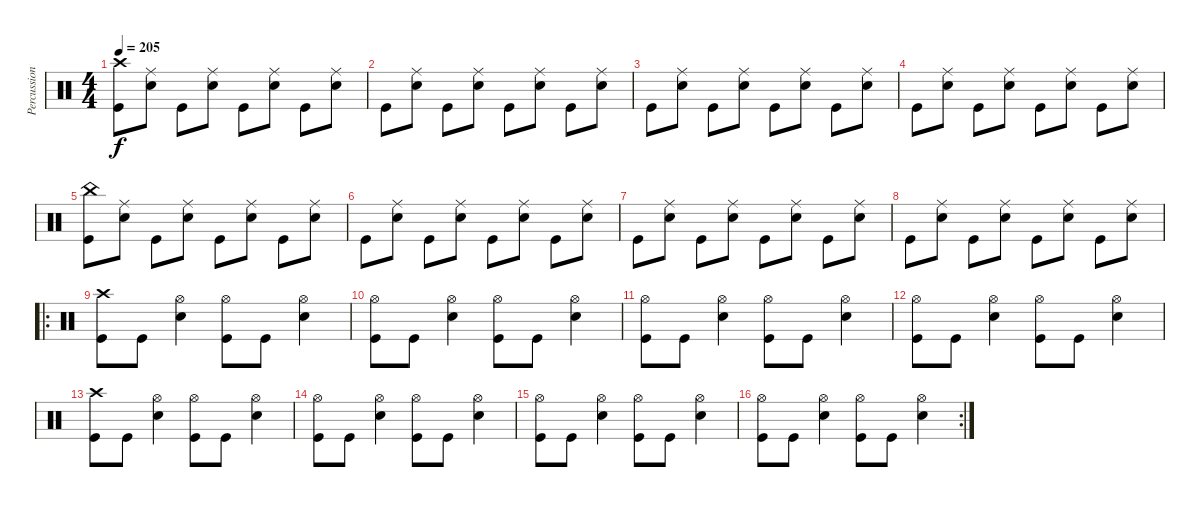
\track ("Percussion" "Percussion") {instrument percussion}
\staff {score}
\articulation defaults
\ts (4 4)
\tempo 205
\clef neutral
\ks c
("Kick (hit)" "Crash high (hit)").8{dy f} ("Snare (hit) 2" "Ride (middle)").8 "Kick (hit)".8 ("Snare (hit) 2" "Ride (middle)").8 "Kick (hit)".8 ("Snare (hit) 2" "Ride (middle)").8 "Kick (hit)".8 ("Snare (hit) 2" "Ride (middle)").8 |
"Kick (hit)".8 ("Snare (hit) 2" "Ride (middle)").8 "Kick (hit)".8 ("Snare (hit) 2" "Ride (middle)").8 "Kick (hit)".8 ("Snare (hit) 2" "Ride (middle)").8 "Kick (hit)".8 ("Snare (hit) 2" "Ride (middle)").8 |
"Kick (hit)".8 ("Snare (hit) 2" "Ride (middle)").8 "Kick (hit)".8 ("Snare (hit) 2" "Ride (middle)").8 "Kick (hit)".8 ("Snare (hit) 2" "Ride (middle)").8 "Kick (hit)".8 ("Snare (hit) 2" "Ride (middle)").8 |
"Kick (hit)".8 ("Snare (hit) 2" "Ride (middle)").8 "Kick (hit)".8 ("Snare (hit) 2" "Ride (middle)").8 "Kick (hit)".8 ("Snare (hit) 2" "Ride (middle)").8 "Kick (hit)".8 ("Snare (hit) 2" "Ride (middle)").8 |
("Kick (hit)" "China (hit)").8 ("Snare (hit) 2" "Ride (middle)").8 "Kick (hit)".8 ("Snare (hit) 2" "Ride (middle)").8 "Kick (hit)".8 ("Snare (hit) 2" "Ride (middle)").8 "Kick (hit)".8 ("Snare (hit) 2" "Ride (middle)").8 |
"Kick (hit)".8 ("Snare (hit) 2" "Ride (middle)").8 "Kick (hit)".8 ("Snare (hit) 2" "Ride (middle)").8 "Kick (hit)".8 ("Snare (hit) 2" "Ride (middle)").8 "Kick (hit)".8 ("Snare (hit) 2" "Ride (middle)").8 |
"Kick (hit)".8 ("Snare (hit) 2" "Ride (middle)").8 "Kick (hit)".8 ("Snare (hit) 2" "Ride (middle)").8 "Kick (hit)".8 ("Snare (hit) 2" "Ride (middle)").8 "Kick (hit)".8 ("Snare (hit) 2" "Ride (middle)").8 |
"Kick (hit)".8 ("Snare (hit) 2" "Ride (middle)").8 "Kick (hit)".8 ("Snare (hit) 2" "Ride (middle)").8 "Kick (hit)".8 ("Snare (hit) 2" "Ride (middle)").8 "Kick (hit)".8 ("Snare (hit) 2" "Ride (middle)").8 |
\ro
("Kick (hit)" "Crash high (hit)").8 "Kick (hit)".8 ("Snare (hit) 2" "Hi-Hat (open)").4 ("Kick (hit)" "Hi-Hat (open)").8 "Kick (hit)".8 ("Snare (hit) 2" "Hi-Hat (open)").4 |
("Kick (hit)" "Hi-Hat (open)").8 "Kick (hit)".8 ("Snare (hit) 2" "Hi-Hat (open)").4 ("Kick (hit)" "Hi-Hat (open)").8 "Kick (hit)".8 ("Snare (hit) 2" "Hi-Hat (open)").4 |
("Kick (hit)" "Hi-Hat (open)").8 "Kick (hit)".8 ("Snare (hit) 2" "Hi-Hat (open)").4 ("Kick (hit)" "Hi-Hat (open)").8 "Kick (hit)".8 ("Snare (hit) 2" "Hi-Hat (open)").4 |
("Kick (hit)" "Hi-Hat (open)").8 "Kick (hit)".8 ("Snare (hit) 2" "Hi-Hat (open)").4 ("Kick (hit)" "Hi-Hat (open)").8 "Kick (hit)".8 ("Snare (hit) 2" "Hi-Hat (open)").4 |
("Kick (hit)" "Crash high (hit)").8 "Kick (hit)".8 ("Snare (hit) 2" "Hi-Hat (open)").4 ("Kick (hit)" "Hi-Hat (open)").8 "Kick (hit)".8 ("Snare (hit) 2" "Hi-Hat (open)").4 |
("Kick (hit)" "Hi-Hat (open)").8 "Kick (hit)".8 ("Snare (hit) 2" "Hi-Hat (open)").4 ("Kick (hit)" "Hi-Hat (open)").8 "Kick (hit)".8 ("Snare (hit) 2" "Hi-Hat (open)").4 |
("Kick (hit)" "Hi-Hat (open)").8 "Kick (hit)".8 ("Snare (hit) 2" "Hi-Hat (open)").4 ("Kick (hit)" "Hi-Hat (open)").8 "Kick (hit)".8 ("Snare (hit) 2" "Hi-Hat (open)").4 |
\rc 2
("Kick (hit)" "Hi-Hat (open)").8 "Kick (hit)".8 ("Snare (hit) 2" "Hi-Hat (open)").4 ("Kick (hit)" "Hi-Hat (open)").8 "Kick (hit)".8 ("Snare (hit) 2" "Hi-Hat (open)").4
